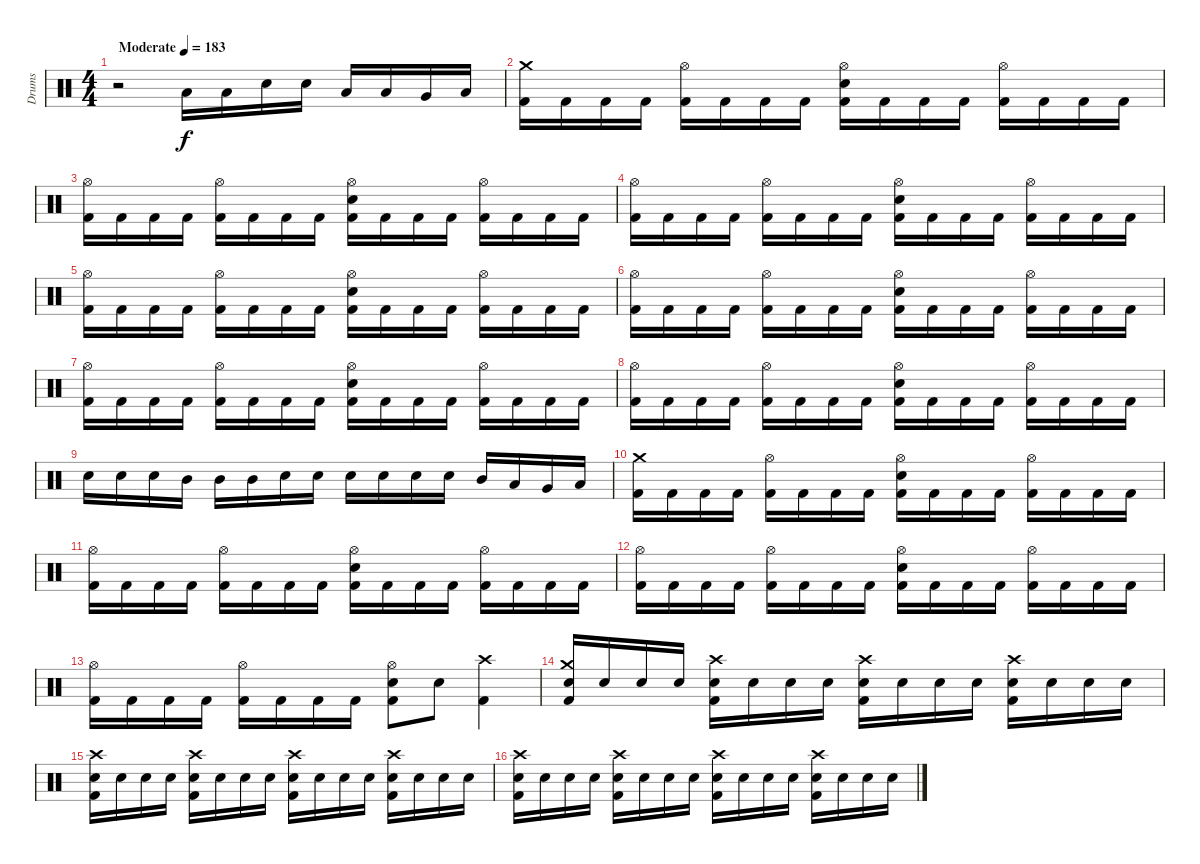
\track ("Drums" "Drums") {instrument percussion}
\staff {score}
\articulation defaults
\ts (4 4)
\tempo (183 "Moderate")
\clef neutral
\ks c
r.2{dy f} "Low Tom (hit)".16 "Low Tom (hit)".16 "Electric Snare (hit)".16 "Electric Snare (hit)".16 "Low Tom (hit)".16 "Low Tom (hit)".16 "Very Low Tom (hit)".16 "Low Floor Tom (hit)".16 |
("Crash medium (hit)" "Kick (hit) 2").16 "Kick (hit) 2".16 "Kick (hit) 2".16 "Kick (hit) 2".16 ("Hi-Hat (open)" "Kick (hit) 2").16 "Kick (hit) 2".16 "Kick (hit) 2".16 "Kick (hit) 2".16 ("Hi-Hat (open)" "Electric Snare (hit)" "Kick (hit) 2").16 "Kick (hit) 2".16 "Kick (hit) 2".16 "Kick (hit) 2".16 ("Hi-Hat (open)" "Kick (hit) 2").16 "Kick (hit) 2".16 "Kick (hit) 2".16 "Kick (hit) 2".16 |
("Hi-Hat (open)" "Kick (hit) 2").16 "Kick (hit) 2".16 "Kick (hit) 2".16 "Kick (hit) 2".16 ("Hi-Hat (open)" "Kick (hit) 2").16 "Kick (hit) 2".16 "Kick (hit) 2".16 "Kick (hit) 2".16 ("Hi-Hat (open)" "Electric Snare (hit)" "Kick (hit) 2").16 "Kick (hit) 2".16 "Kick (hit) 2".16 "Kick (hit) 2".16 ("Hi-Hat (open)" "Kick (hit) 2").16 "Kick (hit) 2".16 "Kick (hit) 2".16 "Kick (hit) 2".16 |
("Hi-Hat (open)" "Kick (hit) 2").16 "Kick (hit) 2".16 "Kick (hit) 2".16 "Kick (hit) 2".16 ("Hi-Hat (open)" "Kick (hit) 2").16 "Kick (hit) 2".16 "Kick (hit) 2".16 "Kick (hit) 2".16 ("Hi-Hat (open)" "Electric Snare (hit)" "Kick (hit) 2").16 "Kick (hit) 2".16 "Kick (hit) 2".16 "Kick (hit) 2".16 ("Hi-Hat (open)" "Kick (hit) 2").16 "Kick (hit) 2".16 "Kick (hit) 2".16 "Kick (hit) 2".16 |
("Hi-Hat (open)" "Kick (hit) 2").16 "Kick (hit) 2".16 "Kick (hit) 2".16 "Kick (hit) 2".16 ("Hi-Hat (open)" "Kick (hit) 2").16 "Kick (hit) 2".16 "Kick (hit) 2".16 "Kick (hit) 2".16 ("Hi-Hat (open)" "Electric Snare (hit)" "Kick (hit) 2").16 "Kick (hit) 2".16 "Kick (hit) 2".16 "Kick (hit) 2".16 ("Hi-Hat (open)" "Kick (hit) 2").16 "Kick (hit) 2".16 "Kick (hit) 2".16 "Kick (hit) 2".16 |
("Hi-Hat (open)" "Kick (hit) 2").16 "Kick (hit) 2".16 "Kick (hit) 2".16 "Kick (hit) 2".16 ("Hi-Hat (open)" "Kick (hit) 2").16 "Kick (hit) 2".16 "Kick (hit) 2".16 "Kick (hit) 2".16 ("Hi-Hat (open)" "Electric Snare (hit)" "Kick (hit) 2").16 "Kick (hit) 2".16 "Kick (hit) 2".16 "Kick (hit) 2".16 ("Hi-Hat (open)" "Kick (hit) 2").16 "Kick (hit) 2".16 "Kick (hit) 2".16 "Kick (hit) 2".16 |
("Hi-Hat (open)" "Kick (hit) 2").16 "Kick (hit) 2".16 "Kick (hit) 2".16 "Kick (hit) 2".16 ("Hi-Hat (open)" "Kick (hit) 2").16 "Kick (hit) 2".16 "Kick (hit) 2".16 "Kick (hit) 2".16 ("Hi-Hat (open)" "Electric Snare (hit)" "Kick (hit) 2").16 "Kick (hit) 2".16 "Kick (hit) 2".16 "Kick (hit) 2".16 ("Hi-Hat (open)" "Kick (hit) 2").16 "Kick (hit) 2".16 "Kick (hit) 2".16 "Kick (hit) 2".16 |
("Hi-Hat (open)" "Kick (hit) 2").16 "Kick (hit) 2".16 "Kick (hit) 2".16 "Kick (hit) 2".16 ("Hi-Hat (open)" "Kick (hit) 2").16 "Kick (hit) 2".16 "Kick (hit) 2".16 "Kick (hit) 2".16 ("Hi-Hat (open)" "Electric Snare (hit)" "Kick (hit) 2").16 "Kick (hit) 2".16 "Kick (hit) 2".16 "Kick (hit) 2".16 ("Hi-Hat (open)" "Kick (hit) 2").16 "Kick (hit) 2".16 "Kick (hit) 2".16 "Kick (hit) 2".16 |
"Electric Snare (hit)".16 "Electric Snare (hit)".16 "Electric Snare (hit)".16 "Mid Tom (hit)".16 "Mid Tom (hit)".16 "Mid Tom (hit)".16 "Electric Snare (hit)".16 "Electric Snare (hit)".16 "Electric Snare (hit)".16 "Electric Snare (hit)".16 "Electric Snare (hit)".16 "Electric Snare (hit)".16 "Mid Tom (hit)".16 "Low Tom (hit)".16 "Very Low Tom (hit)".16 "Low Floor Tom (hit)".16 |
("Crash medium (hit)" "Kick (hit) 2").16 "Kick (hit) 2".16 "Kick (hit) 2".16 "Kick (hit) 2".16 ("Hi-Hat (open)" "Kick (hit) 2").16 "Kick (hit) 2".16 "Kick (hit) 2".16 "Kick (hit) 2".16 ("Hi-Hat (open)" "Electric Snare (hit)" "Kick (hit) 2").16 "Kick (hit) 2".16 "Kick (hit) 2".16 "Kick (hit) 2".16 ("Hi-Hat (open)" "Kick (hit) 2").16 "Kick (hit) 2".16 "Kick (hit) 2".16 "Kick (hit) 2".16 |
("Hi-Hat (open)" "Kick (hit) 2").16 "Kick (hit) 2".16 "Kick (hit) 2".16 "Kick (hit) 2".16 ("Hi-Hat (open)" "Kick (hit) 2").16 "Kick (hit) 2".16 "Kick (hit) 2".16 "Kick (hit) 2".16 ("Hi-Hat (open)" "Electric Snare (hit)" "Kick (hit) 2").16 "Kick (hit) 2".16 "Kick (hit) 2".16 "Kick (hit) 2".16 ("Hi-Hat (open)" "Kick (hit) 2").16 "Kick (hit) 2".16 "Kick (hit) 2".16 "Kick (hit) 2".16 |
("Hi-Hat (open)" "Kick (hit) 2").16 "Kick (hit) 2".16 "Kick (hit) 2".16 "Kick (hit) 2".16 ("Hi-Hat (open)" "Kick (hit) 2").16 "Kick (hit) 2".16 "Kick (hit) 2".16 "Kick (hit) 2".16 ("Hi-Hat (open)" "Electric Snare (hit)" "Kick (hit) 2").16 "Kick (hit) 2".16 "Kick (hit) 2".16 "Kick (hit) 2".16 ("Hi-Hat (open)" "Kick (hit) 2").16 "Kick (hit) 2".16 "Kick (hit) 2".16 "Kick (hit) 2".16 |
("Hi-Hat (open)" "Kick (hit) 2").16 "Kick (hit) 2".16 "Kick (hit) 2".16 "Kick (hit) 2".16 ("Hi-Hat (open)" "Kick (hit) 2").16 "Kick (hit) 2".16 "Kick (hit) 2".16 "Kick (hit) 2".16 ("Hi-Hat (open)" "Electric Snare (hit)" "Kick (hit) 2").8 "Electric Snare (hit)".8 ("Crash high (hit)" "Kick (hit) 2").4 |
("Crash medium (hit)" "Electric Snare (hit)" "Kick (hit) 2").16 "Electric Snare (hit)".16 "Electric Snare (hit)".16 "Electric Snare (hit)".16 ("Crash high (hit)" "Electric Snare (hit)" "Kick (hit) 2").16 "Electric Snare (hit)".16 "Electric Snare (hit)".16 "Electric Snare (hit)".16 ("Crash high (hit)" "Electric Snare (hit)" "Kick (hit) 2").16 "Electric Snare (hit)".16 "Electric Snare (hit)".16 "Electric Snare (hit)".16 ("Crash high (hit)" "Electric Snare (hit)" "Kick (hit) 2").16 "Electric Snare (hit)".16 "Electric Snare (hit)".16 "Electric Snare (hit)".16 |
("Crash high (hit)" "Electric Snare (hit)" "Kick (hit) 2").16 "Electric Snare (hit)".16 "Electric Snare (hit)".16 "Electric Snare (hit)".16 ("Crash high (hit)" "Electric Snare (hit)" "Kick (hit) 2").16 "Electric Snare (hit)".16 "Electric Snare (hit)".16 "Electric Snare (hit)".16 ("Crash high (hit)" "Electric Snare (hit)" "Kick (hit) 2").16 "Electric Snare (hit)".16 "Electric Snare (hit)".16 "Electric Snare (hit)".16 ("Crash high (hit)" "Electric Snare (hit)" "Kick (hit) 2").16 "Electric Snare (hit)".16 "Electric Snare (hit)".16 "Electric Snare (hit)".16 |
("Crash high (hit)" "Electric Snare (hit)" "Kick (hit) 2").16 "Electric Snare (hit)".16 "Electric Snare (hit)".16 "Electric Snare (hit)".16 ("Crash high (hit)" "Electric Snare (hit)" "Kick (hit) 2").16 "Electric Snare (hit)".16 "Electric Snare (hit)".16 "Electric Snare (hit)".16 ("Crash high (hit)" "Electric Snare (hit)" "Kick (hit) 2").16 "Electric Snare (hit)".16 "Electric Snare (hit)".16 "Electric Snare (hit)".16 ("Crash high (hit)" "Electric Snare (hit)" "Kick (hit) 2").16 "Electric Snare (hit)".16 "Electric Snare (hit)".16 "Electric Snare (hit)".16
